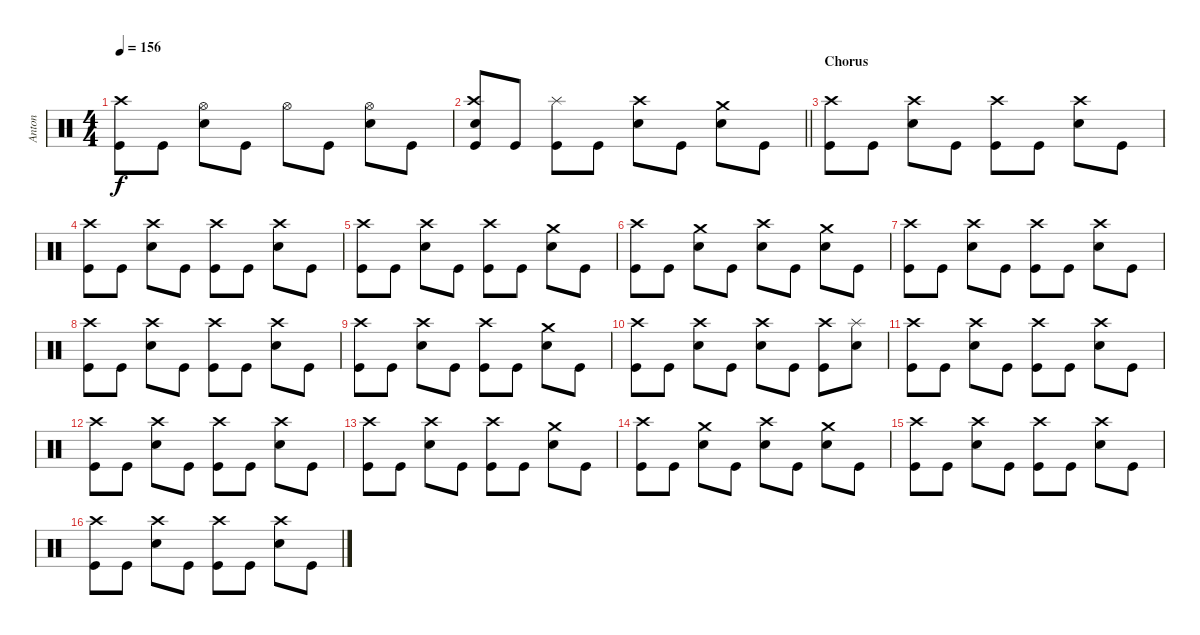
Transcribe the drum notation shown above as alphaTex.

\track ("Anton " "Anton ") {instrument percussion}
\staff
\articulation defaults
\ts (4 4)
\tempo 156
\clef neutral
\ks c
("Kick (hit)" "Crash high (hit)").8{dy f} "Kick (hit)".8 ("Hi-Hat (open)" "Snare (hit) 2").8 "Kick (hit)".8 "Hi-Hat (open)".8 "Kick (hit)".8 ("Hi-Hat (open)" "Snare (hit) 2").8 "Kick (hit)".8 |
\barLineRight lightlight
("Crash high (hit)" "Kick (hit)" "Snare (hit) 2").8 "Kick (hit)".8 ("Splash (hit)" "Kick (hit)").8 "Kick (hit)".8 ("Snare (hit) 2" "Crash high (hit)").8 "Kick (hit)".8 ("Snare (hit) 2" "Crash medium (hit)").8 "Kick (hit)".8 |
\section ("" "Chorus")
("Crash high (hit)" "Kick (hit)").8 "Kick (hit)".8 ("Crash high (hit)" "Snare (hit) 2").8 "Kick (hit)".8 ("Crash high (hit)" "Kick (hit)").8 "Kick (hit)".8 ("Crash high (hit)" "Snare (hit) 2").8 "Kick (hit)".8 |
("Crash high (hit)" "Kick (hit)").8 "Kick (hit)".8 ("Crash high (hit)" "Snare (hit) 2").8 "Kick (hit)".8 ("Crash high (hit)" "Kick (hit)").8 "Kick (hit)".8 ("Crash high (hit)" "Snare (hit) 2").8 "Kick (hit)".8 |
("Crash high (hit)" "Kick (hit)").8 "Kick (hit)".8 ("Crash high (hit)" "Snare (hit) 2").8 "Kick (hit)".8 ("Crash high (hit)" "Kick (hit)").8 "Kick (hit)".8 ("Snare (hit) 2" "Crash medium (hit)").8 "Kick (hit)".8 |
("Crash high (hit)" "Kick (hit)").8 "Kick (hit)".8 ("Snare (hit) 2" "Crash medium (hit)").8 "Kick (hit)".8 ("Crash high (hit)" "Snare (hit) 2").8 "Kick (hit)".8 ("Snare (hit) 2" "Crash medium (hit)").8 "Kick (hit)".8 |
("Crash high (hit)" "Kick (hit)").8 "Kick (hit)".8 ("Crash high (hit)" "Snare (hit) 2").8 "Kick (hit)".8 ("Crash high (hit)" "Kick (hit)").8 "Kick (hit)".8 ("Crash high (hit)" "Snare (hit) 2").8 "Kick (hit)".8 |
("Crash high (hit)" "Kick (hit)").8 "Kick (hit)".8 ("Crash high (hit)" "Snare (hit) 2").8 "Kick (hit)".8 ("Crash high (hit)" "Kick (hit)").8 "Kick (hit)".8 ("Crash high (hit)" "Snare (hit) 2").8 "Kick (hit)".8 |
("Crash high (hit)" "Kick (hit)").8 "Kick (hit)".8 ("Crash high (hit)" "Snare (hit) 2").8 "Kick (hit)".8 ("Crash high (hit)" "Kick (hit)").8 "Kick (hit)".8 ("Snare (hit) 2" "Crash medium (hit)").8 "Kick (hit)".8 |
("Crash high (hit)" "Kick (hit)").8 "Kick (hit)".8 ("Crash high (hit)" "Snare (hit) 2").8 "Kick (hit)".8 ("Crash high (hit)" "Snare (hit) 2").8 "Kick (hit)".8 ("Crash high (hit)" "Kick (hit)").8 ("Snare (hit) 2" "Splash (hit)").8 |
("Crash high (hit)" "Kick (hit)").8 "Kick (hit)".8 ("Crash high (hit)" "Snare (hit) 2").8 "Kick (hit)".8 ("Crash high (hit)" "Kick (hit)").8 "Kick (hit)".8 ("Crash high (hit)" "Snare (hit) 2").8 "Kick (hit)".8 |
("Crash high (hit)" "Kick (hit)").8 "Kick (hit)".8 ("Crash high (hit)" "Snare (hit) 2").8 "Kick (hit)".8 ("Crash high (hit)" "Kick (hit)").8 "Kick (hit)".8 ("Crash high (hit)" "Snare (hit) 2").8 "Kick (hit)".8 |
("Crash high (hit)" "Kick (hit)").8 "Kick (hit)".8 ("Crash high (hit)" "Snare (hit) 2").8 "Kick (hit)".8 ("Crash high (hit)" "Kick (hit)").8 "Kick (hit)".8 ("Snare (hit) 2" "Crash medium (hit)").8 "Kick (hit)".8 |
("Crash high (hit)" "Kick (hit)").8 "Kick (hit)".8 ("Snare (hit) 2" "Crash medium (hit)").8 "Kick (hit)".8 ("Crash high (hit)" "Snare (hit) 2").8 "Kick (hit)".8 ("Snare (hit) 2" "Crash medium (hit)").8 "Kick (hit)".8 |
("Crash high (hit)" "Kick (hit)").8 "Kick (hit)".8 ("Crash high (hit)" "Snare (hit) 2").8 "Kick (hit)".8 ("Crash high (hit)" "Kick (hit)").8 "Kick (hit)".8 ("Crash high (hit)" "Snare (hit) 2").8 "Kick (hit)".8 |
("Crash high (hit)" "Kick (hit)").8 "Kick (hit)".8 ("Crash high (hit)" "Snare (hit) 2").8 "Kick (hit)".8 ("Crash high (hit)" "Kick (hit)").8 "Kick (hit)".8 ("Crash high (hit)" "Snare (hit) 2").8 "Kick (hit)".8
